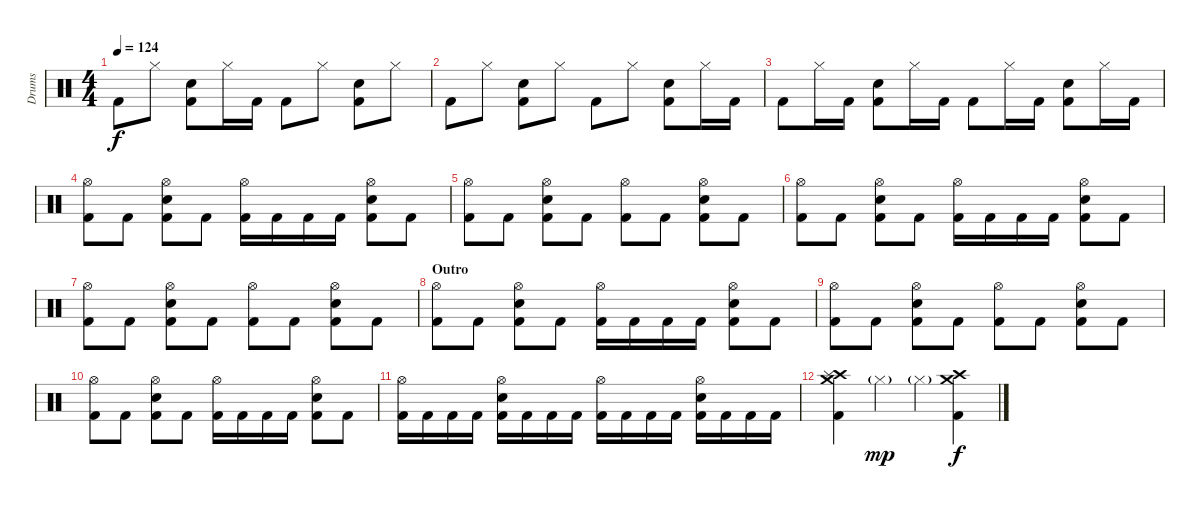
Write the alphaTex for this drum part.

\track ("Drums" "Drums") {instrument percussion}
\staff {score}
\articulation defaults
\ts (4 4)
\tempo 124
\clef neutral
\ks c "Kick (hit) 2".8{dy f} "Hi-Hat (closed)".8
("Electric Snare (hit)" "Kick (hit) 2").8 "Hi-Hat (closed)".16 "Kick (hit) 2".16 "Kick (hit) 2".8 "Hi-Hat (closed)".8 ("Electric Snare (hit)" "Kick (hit) 2").8 "Hi-Hat (closed)".8 |
"Kick (hit) 2".8 "Hi-Hat (closed)".8 ("Electric Snare (hit)" "Kick (hit) 2").8 "Hi-Hat (closed)".8 "Kick (hit) 2".8 "Hi-Hat (closed)".8 ("Electric Snare (hit)" "Kick (hit) 2").8 "Hi-Hat (closed)".16 "Kick (hit) 2".16 |
"Kick (hit) 2".8 "Hi-Hat (closed)".16 "Kick (hit) 2".16 ("Electric Snare (hit)" "Kick (hit) 2").8 "Hi-Hat (closed)".16 "Kick (hit) 2".16 "Kick (hit) 2".8 "Hi-Hat (closed)".16 "Kick (hit) 2".16 ("Electric Snare (hit)" "Kick (hit) 2").8 "Hi-Hat (closed)".16 "Kick (hit) 2".16 |
("Hi-Hat (open)" "Kick (hit) 2").8 "Kick (hit) 2".8 ("Hi-Hat (open)" "Electric Snare (hit)" "Kick (hit) 2").8 "Kick (hit) 2".8 ("Hi-Hat (open)" "Kick (hit) 2").16 "Kick (hit) 2".16 "Kick (hit) 2".16 "Kick (hit) 2".16 ("Hi-Hat (open)" "Electric Snare (hit)" "Kick (hit) 2").8 "Kick (hit) 2".8 |
("Hi-Hat (open)" "Kick (hit) 2").8 "Kick (hit) 2".8 ("Hi-Hat (open)" "Electric Snare (hit)" "Kick (hit) 2").8 "Kick (hit) 2".8 ("Hi-Hat (open)" "Kick (hit) 2").8 "Kick (hit) 2".8 ("Hi-Hat (open)" "Electric Snare (hit)" "Kick (hit) 2").8 "Kick (hit) 2".8 |
("Hi-Hat (open)" "Kick (hit) 2").8 "Kick (hit) 2".8 ("Hi-Hat (open)" "Electric Snare (hit)" "Kick (hit) 2").8 "Kick (hit) 2".8 ("Hi-Hat (open)" "Kick (hit) 2").16 "Kick (hit) 2".16 "Kick (hit) 2".16 "Kick (hit) 2".16 ("Hi-Hat (open)" "Electric Snare (hit)" "Kick (hit) 2").8 "Kick (hit) 2".8 |
("Hi-Hat (open)" "Kick (hit) 2").8 "Kick (hit) 2".8 ("Hi-Hat (open)" "Electric Snare (hit)" "Kick (hit) 2").8 "Kick (hit) 2".8 ("Hi-Hat (open)" "Kick (hit) 2").8 "Kick (hit) 2".8 ("Hi-Hat (open)" "Electric Snare (hit)" "Kick (hit) 2").8 "Kick (hit) 2".8 |
\section ("" "Outro")
("Hi-Hat (open)" "Kick (hit) 2").8 "Kick (hit) 2".8 ("Hi-Hat (open)" "Electric Snare (hit)" "Kick (hit) 2").8 "Kick (hit) 2".8 ("Hi-Hat (open)" "Kick (hit) 2").16 "Kick (hit) 2".16 "Kick (hit) 2".16 "Kick (hit) 2".16 ("Hi-Hat (open)" "Electric Snare (hit)" "Kick (hit) 2").8 "Kick (hit) 2".8 |
("Hi-Hat (open)" "Kick (hit) 2").8 "Kick (hit) 2".8 ("Hi-Hat (open)" "Electric Snare (hit)" "Kick (hit) 2").8 "Kick (hit) 2".8 ("Hi-Hat (open)" "Kick (hit) 2").8 "Kick (hit) 2".8 ("Hi-Hat (open)" "Electric Snare (hit)" "Kick (hit) 2").8 "Kick (hit) 2".8 |
("Hi-Hat (open)" "Kick (hit) 2").8 "Kick (hit) 2".8 ("Hi-Hat (open)" "Electric Snare (hit)" "Kick (hit) 2").8 "Kick (hit) 2".8 ("Hi-Hat (open)" "Kick (hit) 2").16 "Kick (hit) 2".16 "Kick (hit) 2".16 "Kick (hit) 2".16 ("Hi-Hat (open)" "Electric Snare (hit)" "Kick (hit) 2").8 "Kick (hit) 2".8 |
("Hi-Hat (open)" "Kick (hit) 2").16 "Kick (hit) 2".16 "Kick (hit) 2".16 "Kick (hit) 2".16 ("Hi-Hat (open)" "Electric Snare (hit)" "Kick (hit) 2").16 "Kick (hit) 2".16 "Kick (hit) 2".16 "Kick (hit) 2".16 ("Hi-Hat (open)" "Kick (hit) 2").16 "Kick (hit) 2".16 "Kick (hit) 2".16 "Kick (hit) 2".16 ("Hi-Hat (open)" "Electric Snare (hit)" "Kick (hit) 2").16 "Kick (hit) 2".16 "Kick (hit) 2".16 "Kick (hit) 2".16 |
("Crash medium (hit)" "Crash high (hit)" "Splash (hit)" "Kick (hit) 2").4 "Hi-Hat (closed)"{g}.4{dy mp} "Hi-Hat (closed)"{g}.4 ("Crash medium (hit)" "Crash high (hit)" "Kick (hit) 2").4{dy f}
